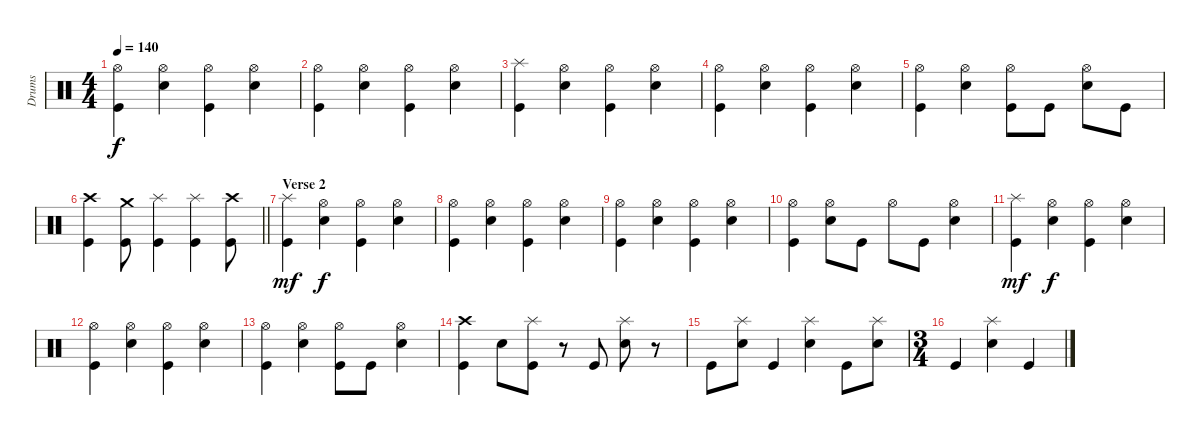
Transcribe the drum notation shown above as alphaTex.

\track ("Drums" "Drums") {instrument percussion}
\staff {score}
\articulation defaults
\ts (4 4)
\tempo 140
\clef neutral
\ks c
("Hi-Hat (open)" "Kick (hit)").4{dy f} ("Hi-Hat (open)" "Electric Snare (hit)").4 ("Hi-Hat (open)" "Kick (hit)").4 ("Hi-Hat (open)" "Electric Snare (hit)").4 |
("Hi-Hat (open)" "Kick (hit)").4 ("Hi-Hat (open)" "Electric Snare (hit)").4 ("Hi-Hat (open)" "Kick (hit)").4 ("Hi-Hat (open)" "Electric Snare (hit)").4 |
("Splash (hit)" "Kick (hit)").4 ("Hi-Hat (open)" "Electric Snare (hit)").4 ("Hi-Hat (open)" "Kick (hit)").4 ("Hi-Hat (open)" "Electric Snare (hit)").4 |
("Hi-Hat (open)" "Kick (hit)").4 ("Hi-Hat (open)" "Electric Snare (hit)").4 ("Hi-Hat (open)" "Kick (hit)").4 ("Hi-Hat (open)" "Electric Snare (hit)").4 |
("Hi-Hat (open)" "Kick (hit)").4 ("Hi-Hat (open)" "Electric Snare (hit)").4 ("Hi-Hat (open)" "Kick (hit)").8 "Kick (hit)".8 ("Hi-Hat (open)" "Electric Snare (hit)").8 "Kick (hit)".8 |
\barLineRight lightlight
("Crash high (hit)" "Kick (hit)").4 ("Crash medium (hit)" "Kick (hit)").8 ("Splash (hit)" "Kick (hit)").4 ("Splash (hit)" "Kick (hit)").4 ("Crash high (hit)" "Kick (hit)").8 |
\section ("" "Verse 2")
("Splash (hit)" "Kick (hit)").4{dy mf} ("Hi-Hat (open)" "Electric Snare (hit)").4{dy f} ("Hi-Hat (open)" "Kick (hit)").4 ("Hi-Hat (open)" "Electric Snare (hit)").4 |
("Hi-Hat (open)" "Kick (hit)").4 ("Hi-Hat (open)" "Electric Snare (hit)").4 ("Hi-Hat (open)" "Kick (hit)").4 ("Hi-Hat (open)" "Electric Snare (hit)").4 |
("Hi-Hat (open)" "Kick (hit)").4 ("Hi-Hat (open)" "Electric Snare (hit)").4 ("Hi-Hat (open)" "Kick (hit)").4 ("Hi-Hat (open)" "Electric Snare (hit)").4 |
("Hi-Hat (open)" "Kick (hit)").4 ("Hi-Hat (open)" "Electric Snare (hit)").8 "Kick (hit)".8 "Hi-Hat (open)".8 "Kick (hit)".8 ("Hi-Hat (open)" "Electric Snare (hit)").4 |
("Splash (hit)" "Kick (hit)").4{dy mf} ("Hi-Hat (open)" "Electric Snare (hit)").4{dy f} ("Hi-Hat (open)" "Kick (hit)").4 ("Hi-Hat (open)" "Electric Snare (hit)").4 |
("Hi-Hat (open)" "Kick (hit)").4 ("Hi-Hat (open)" "Electric Snare (hit)").4 ("Hi-Hat (open)" "Kick (hit)").4 ("Hi-Hat (open)" "Electric Snare (hit)").4 |
("Hi-Hat (open)" "Kick (hit)").4 ("Hi-Hat (open)" "Electric Snare (hit)").4 ("Hi-Hat (open)" "Kick (hit)").8 "Kick (hit)".8 ("Hi-Hat (open)" "Electric Snare (hit)").4 |
("Crash high (hit)" "Kick (hit)").4 "Electric Snare (hit)".8 ("Splash (hit)" "Kick (hit)").8 r.8 "Kick (hit)".8 ("Splash (hit)" "Electric Snare (hit)").8 r.8 |
"Kick (hit)".8 ("Splash (hit)" "Electric Snare (hit)").8 "Kick (hit)".4 ("Splash (hit)" "Electric Snare (hit)").4 "Kick (hit)".8 ("Splash (hit)" "Electric Snare (hit)").8 |
\ts (3 4)
"Kick (hit)".4 ("Splash (hit)" "Electric Snare (hit)").4 "Kick (hit)".4
